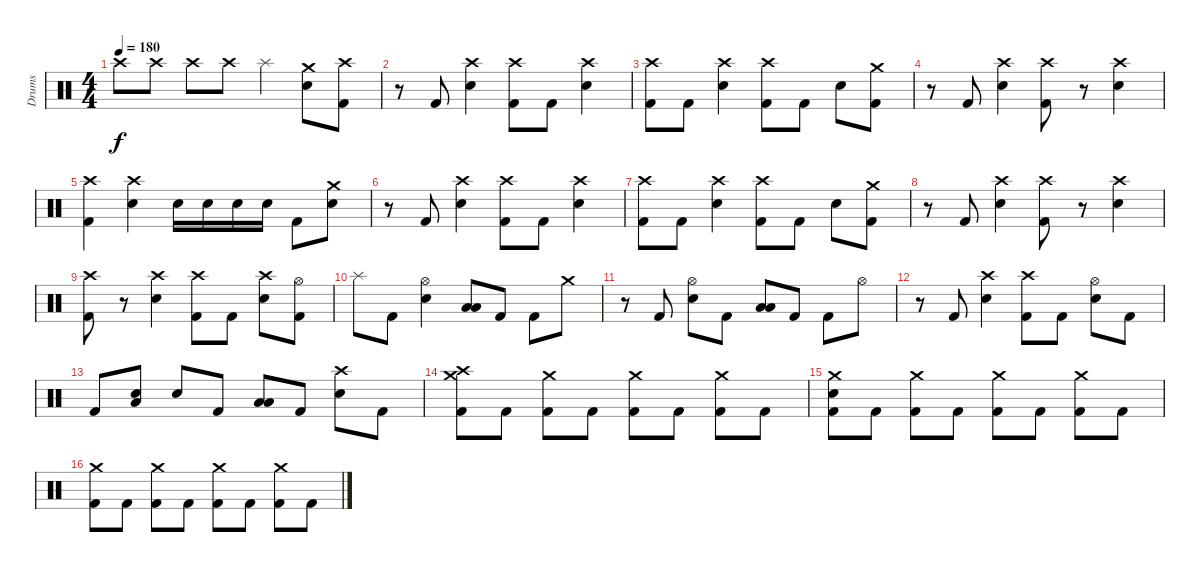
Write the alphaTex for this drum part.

\track ("Drums" "Drums") {instrument percussion}
\staff {score}
\articulation defaults
\ts (4 4)
\tempo 180
\clef neutral
\ks c "Crash high (hit)".8{dy f} "Crash high (hit)".8 "Crash high (hit)".8 "Crash high (hit)".8 "Splash (hit)".4
("Crash medium (hit)" "Snare (hit) 2").8 ("Crash high (hit)" "Kick (hit) 2").8 |
r.8 "Kick (hit) 2".8 ("Crash high (hit)" "Snare (hit) 2").4 ("Crash high (hit)" "Kick (hit) 2").8 "Kick (hit) 2".8 ("Crash high (hit)" "Snare (hit) 2").4 |
("Crash high (hit)" "Kick (hit) 2").8 "Kick (hit) 2".8 ("Crash high (hit)" "Snare (hit) 2").4 ("Crash high (hit)" "Kick (hit) 2").8 "Kick (hit) 2".8 "Snare (hit) 2".8 ("Crash medium (hit)" "Kick (hit) 2").8 |
r.8 "Kick (hit) 2".8 ("Crash high (hit)" "Snare (hit) 2").4 ("Crash high (hit)" "Kick (hit) 2").8 r.8 ("Crash high (hit)" "Snare (hit) 2").4 |
("Crash high (hit)" "Kick (hit) 2").4 ("Crash high (hit)" "Snare (hit) 2").4 "Snare (hit) 2".16 "Snare (hit) 2".16 "Snare (hit) 2".16 "Snare (hit) 2".16 "Kick (hit) 2".8 ("Crash medium (hit)" "Snare (hit) 2").8 |
r.8 "Kick (hit) 2".8 ("Crash high (hit)" "Snare (hit) 2").4 ("Crash high (hit)" "Kick (hit) 2").8 "Kick (hit) 2".8 ("Crash high (hit)" "Snare (hit) 2").4 |
("Crash high (hit)" "Kick (hit) 2").8 "Kick (hit) 2".8 ("Crash high (hit)" "Snare (hit) 2").4 ("Crash high (hit)" "Kick (hit) 2").8 "Kick (hit) 2".8 "Snare (hit) 2".8 ("Crash medium (hit)" "Kick (hit) 2").8 |
r.8 "Kick (hit) 2".8 ("Crash high (hit)" "Snare (hit) 2").4 ("Crash high (hit)" "Kick (hit) 2").8 r.8 ("Crash high (hit)" "Snare (hit) 2").4 |
("Crash high (hit)" "Kick (hit) 2").8 r.8 ("Crash high (hit)" "Snare (hit) 2").4 ("Crash high (hit)" "Kick (hit) 2").8 "Kick (hit) 2".8 ("Crash high (hit)" "Snare (hit) 2").8 ("Hi-Hat (open)" "Kick (hit) 2").8 |
"Splash (hit)".8 "Kick (hit) 2".8 ("Hi-Hat (open)" "Snare (hit) 2").4 ("Low Tom (hit)" "Low Floor Tom (hit)").8 "Kick (hit) 2".8 "Kick (hit) 2".8 "Crash medium (hit)".8 |
r.8 "Kick (hit) 2".8 ("Hi-Hat (open)" "Snare (hit) 2").8 "Kick (hit) 2".8 ("Low Tom (hit)" "Low Floor Tom (hit)").8 "Kick (hit) 2".8 "Kick (hit) 2".8 "Hi-Hat (open)".8 |
r.8 "Kick (hit) 2".8 ("Crash high (hit)" "Snare (hit) 2").4 ("Crash high (hit)" "Kick (hit) 2").8 "Kick (hit) 2".8 ("Hi-Hat (open)" "Snare (hit) 2").8 "Kick (hit) 2".8 |
"Kick (hit) 2".8 ("Snare (hit) 2" "Low Floor Tom (hit)").8 "Snare (hit) 2".8 "Kick (hit) 2".8 ("Low Tom (hit)" "Low Floor Tom (hit)").8 "Kick (hit) 2".8 ("Crash high (hit)" "Snare (hit) 2").8 "Kick (hit) 2".8 |
("Crash medium (hit)" "Crash high (hit)" "Kick (hit) 2").8 "Kick (hit) 2".8 ("Crash medium (hit)" "Kick (hit) 2").8 "Kick (hit) 2".8 ("Crash medium (hit)" "Kick (hit) 2").8 "Kick (hit) 2".8 ("Crash medium (hit)" "Kick (hit) 2").8 "Kick (hit) 2".8 |
("Crash medium (hit)" "Snare (hit) 2" "Kick (hit) 2").8 "Kick (hit) 2".8 ("Crash medium (hit)" "Kick (hit) 2").8 "Kick (hit) 2".8 ("Crash medium (hit)" "Kick (hit) 2").8 "Kick (hit) 2".8 ("Crash medium (hit)" "Kick (hit) 2").8 "Kick (hit) 2".8 |
("Crash medium (hit)" "Kick (hit) 2").8 "Kick (hit) 2".8 ("Crash medium (hit)" "Kick (hit) 2").8 "Kick (hit) 2".8 ("Crash medium (hit)" "Kick (hit) 2").8 "Kick (hit) 2".8 ("Crash medium (hit)" "Kick (hit) 2").8 "Kick (hit) 2".8
